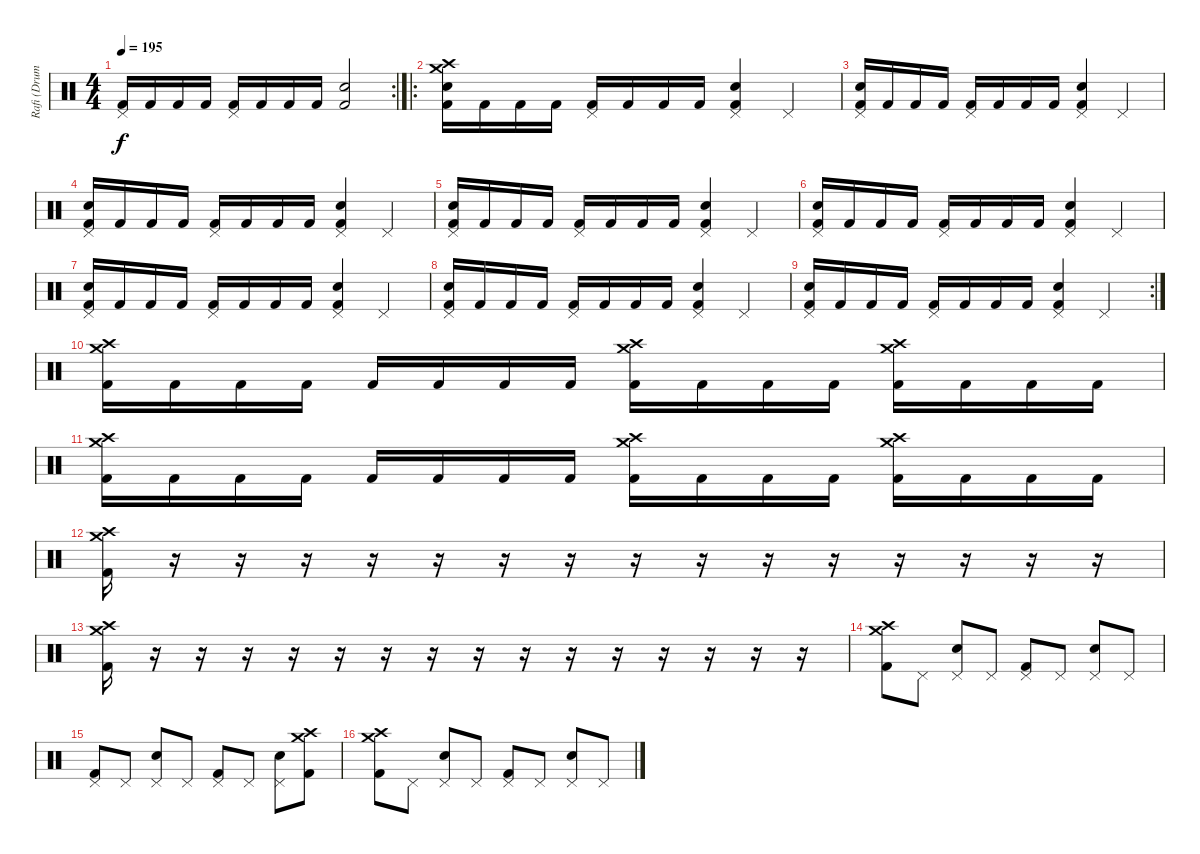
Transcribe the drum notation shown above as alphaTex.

\track ("Rafi (Drums)" "Rafi (Drum") {instrument percussion}
\staff {score}
\articulation defaults
\rc 2
\ts (4 4)
\tempo 195
\clef neutral
\ks c
("Pedal Hi-Hat (hit)" "Kick (hit) 2").16{dy f} "Kick (hit) 2".16 "Kick (hit) 2".16 "Kick (hit) 2".16 ("Pedal Hi-Hat (hit)" "Kick (hit) 2").16 "Kick (hit) 2".16 "Kick (hit) 2".16 "Kick (hit) 2".16 ("Snare (hit) 2" "Kick (hit) 2").2 |
\ro
("Crash medium (hit)" "Crash high (hit)" "Snare (hit) 2" "Kick (hit) 2").16 "Kick (hit) 2".16 "Kick (hit) 2".16 "Kick (hit) 2".16 ("Pedal Hi-Hat (hit)" "Kick (hit) 2").16 "Kick (hit) 2".16 "Kick (hit) 2".16 "Kick (hit) 2".16 ("Pedal Hi-Hat (hit)" "Snare (hit) 2" "Kick (hit) 2").4 "Pedal Hi-Hat (hit)".4 |
("Pedal Hi-Hat (hit)" "Snare (hit) 2" "Kick (hit) 2").16 "Kick (hit) 2".16 "Kick (hit) 2".16 "Kick (hit) 2".16 ("Pedal Hi-Hat (hit)" "Kick (hit) 2").16 "Kick (hit) 2".16 "Kick (hit) 2".16 "Kick (hit) 2".16 ("Pedal Hi-Hat (hit)" "Snare (hit) 2" "Kick (hit) 2").4 "Pedal Hi-Hat (hit)".4 |
("Pedal Hi-Hat (hit)" "Snare (hit) 2" "Kick (hit) 2").16 "Kick (hit) 2".16 "Kick (hit) 2".16 "Kick (hit) 2".16 ("Pedal Hi-Hat (hit)" "Kick (hit) 2").16 "Kick (hit) 2".16 "Kick (hit) 2".16 "Kick (hit) 2".16 ("Pedal Hi-Hat (hit)" "Snare (hit) 2" "Kick (hit) 2").4 "Pedal Hi-Hat (hit)".4 |
("Pedal Hi-Hat (hit)" "Snare (hit) 2" "Kick (hit) 2").16 "Kick (hit) 2".16 "Kick (hit) 2".16 "Kick (hit) 2".16 ("Pedal Hi-Hat (hit)" "Kick (hit) 2").16 "Kick (hit) 2".16 "Kick (hit) 2".16 "Kick (hit) 2".16 ("Pedal Hi-Hat (hit)" "Snare (hit) 2" "Kick (hit) 2").4 "Pedal Hi-Hat (hit)".4 |
("Pedal Hi-Hat (hit)" "Snare (hit) 2" "Kick (hit) 2").16 "Kick (hit) 2".16 "Kick (hit) 2".16 "Kick (hit) 2".16 ("Pedal Hi-Hat (hit)" "Kick (hit) 2").16 "Kick (hit) 2".16 "Kick (hit) 2".16 "Kick (hit) 2".16 ("Pedal Hi-Hat (hit)" "Snare (hit) 2" "Kick (hit) 2").4 "Pedal Hi-Hat (hit)".4 |
("Pedal Hi-Hat (hit)" "Snare (hit) 2" "Kick (hit) 2").16 "Kick (hit) 2".16 "Kick (hit) 2".16 "Kick (hit) 2".16 ("Pedal Hi-Hat (hit)" "Kick (hit) 2").16 "Kick (hit) 2".16 "Kick (hit) 2".16 "Kick (hit) 2".16 ("Pedal Hi-Hat (hit)" "Snare (hit) 2" "Kick (hit) 2").4 "Pedal Hi-Hat (hit)".4 |
("Pedal Hi-Hat (hit)" "Snare (hit) 2" "Kick (hit) 2").16 "Kick (hit) 2".16 "Kick (hit) 2".16 "Kick (hit) 2".16 ("Pedal Hi-Hat (hit)" "Kick (hit) 2").16 "Kick (hit) 2".16 "Kick (hit) 2".16 "Kick (hit) 2".16 ("Pedal Hi-Hat (hit)" "Snare (hit) 2" "Kick (hit) 2").4 "Pedal Hi-Hat (hit)".4 |
\rc 2
("Pedal Hi-Hat (hit)" "Snare (hit) 2" "Kick (hit) 2").16 "Kick (hit) 2".16 "Kick (hit) 2".16 "Kick (hit) 2".16 ("Pedal Hi-Hat (hit)" "Kick (hit) 2").16 "Kick (hit) 2".16 "Kick (hit) 2".16 "Kick (hit) 2".16 ("Pedal Hi-Hat (hit)" "Snare (hit) 2" "Kick (hit) 2").4 "Pedal Hi-Hat (hit)".4 |
("Crash medium (hit)" "Crash high (hit)" "Kick (hit) 2").16 "Kick (hit) 2".16 "Kick (hit) 2".16 "Kick (hit) 2".16 "Kick (hit) 2".16 "Kick (hit) 2".16 "Kick (hit) 2".16 "Kick (hit) 2".16 ("Crash medium (hit)" "Crash high (hit)" "Kick (hit) 2").16 "Kick (hit) 2".16 "Kick (hit) 2".16 "Kick (hit) 2".16 ("Crash medium (hit)" "Crash high (hit)" "Kick (hit) 2").16 "Kick (hit) 2".16 "Kick (hit) 2".16 "Kick (hit) 2".16 |
("Crash medium (hit)" "Crash high (hit)" "Kick (hit) 2").16 "Kick (hit) 2".16 "Kick (hit) 2".16 "Kick (hit) 2".16 "Kick (hit) 2".16 "Kick (hit) 2".16 "Kick (hit) 2".16 "Kick (hit) 2".16 ("Crash medium (hit)" "Crash high (hit)" "Kick (hit) 2").16 "Kick (hit) 2".16 "Kick (hit) 2".16 "Kick (hit) 2".16 ("Crash medium (hit)" "Crash high (hit)" "Kick (hit) 2").16 "Kick (hit) 2".16 "Kick (hit) 2".16 "Kick (hit) 2".16 |
("Crash medium (hit)" "Crash high (hit)" "Kick (hit) 2").16 r.16 r.16 r.16 r.16 r.16 r.16 r.16 r.16 r.16 r.16 r.16 r.16 r.16 r.16 r.16 |
("Crash medium (hit)" "Crash high (hit)" "Kick (hit) 2").16 r.16 r.16 r.16 r.16 r.16 r.16 r.16 r.16 r.16 r.16 r.16 r.16 r.16 r.16 r.16 |
("Crash medium (hit)" "Crash high (hit)" "Kick (hit) 2").8 "Pedal Hi-Hat (hit)".8 ("Pedal Hi-Hat (hit)" "Snare (hit) 2").8 "Pedal Hi-Hat (hit)".8 ("Pedal Hi-Hat (hit)" "Kick (hit) 2").8 "Pedal Hi-Hat (hit)".8 ("Pedal Hi-Hat (hit)" "Snare (hit) 2").8 "Pedal Hi-Hat (hit)".8 |
("Pedal Hi-Hat (hit)" "Kick (hit) 2").8 "Pedal Hi-Hat (hit)".8 ("Pedal Hi-Hat (hit)" "Snare (hit) 2").8 "Pedal Hi-Hat (hit)".8 ("Pedal Hi-Hat (hit)" "Kick (hit) 2").8 "Pedal Hi-Hat (hit)".8 ("Pedal Hi-Hat (hit)" "Snare (hit) 2").8 ("Crash medium (hit)" "Crash high (hit)" "Kick (hit) 2").8 |
("Crash medium (hit)" "Crash high (hit)" "Kick (hit) 2").8 "Pedal Hi-Hat (hit)".8 ("Pedal Hi-Hat (hit)" "Snare (hit) 2").8 "Pedal Hi-Hat (hit)".8 ("Pedal Hi-Hat (hit)" "Kick (hit) 2").8 "Pedal Hi-Hat (hit)".8 ("Pedal Hi-Hat (hit)" "Snare (hit) 2").8 "Pedal Hi-Hat (hit)".8
